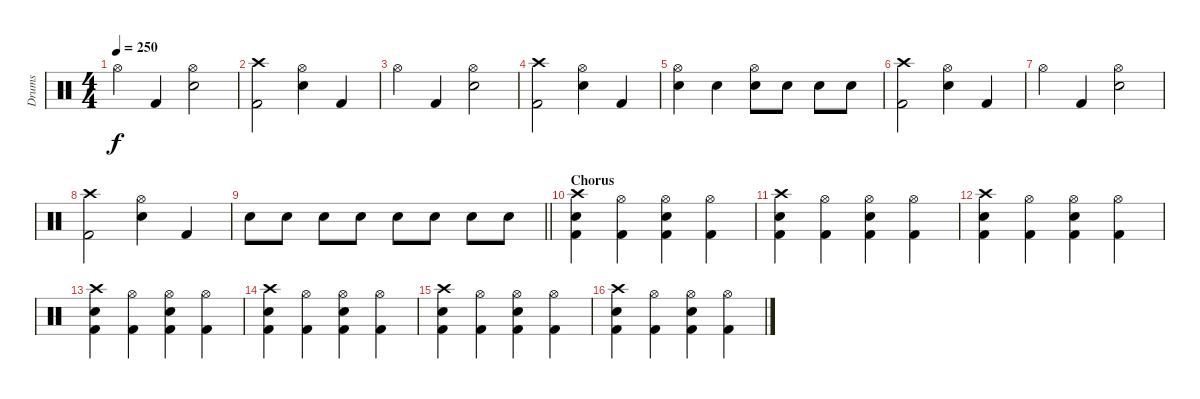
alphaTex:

\track ("Drums" "Drums") {instrument percussion}
\staff {score}
\articulation defaults
\ts (4 4)
\tempo 250
\clef neutral
\ks c "Hi-Hat (open)".4{dy f} "Kick (hit) 2".4
("Hi-Hat (open)" "Electric Snare (hit)").2 |
("Crash high (hit)" "Kick (hit) 2").2 ("Hi-Hat (open)" "Electric Snare (hit)").4 "Kick (hit) 2".4 |
"Hi-Hat (open)".4 "Kick (hit) 2".4 ("Hi-Hat (open)" "Electric Snare (hit)").2 |
("Crash high (hit)" "Kick (hit) 2").2 ("Hi-Hat (open)" "Electric Snare (hit)").4 "Kick (hit) 2".4 |
("Hi-Hat (open)" "Electric Snare (hit)").4 "Electric Snare (hit)".4 ("Hi-Hat (open)" "Electric Snare (hit)").8 "Electric Snare (hit)".8 "Electric Snare (hit)".8 "Electric Snare (hit)".8 |
("Crash high (hit)" "Kick (hit) 2").2 ("Hi-Hat (open)" "Electric Snare (hit)").4 "Kick (hit) 2".4 |
"Hi-Hat (open)".4 "Kick (hit) 2".4 ("Hi-Hat (open)" "Electric Snare (hit)").2 |
("Crash high (hit)" "Kick (hit) 2").2 ("Hi-Hat (open)" "Electric Snare (hit)").4 "Kick (hit) 2".4 |
\barLineRight lightlight "Electric Snare (hit)".8 "Electric Snare (hit)".8 "Electric Snare (hit)".8 "Electric Snare (hit)".8 "Electric Snare (hit)".8 "Electric Snare (hit)".8 "Electric Snare (hit)".8 "Electric Snare (hit)".8
|
\section ("" "Chorus")
("Crash high (hit)" "Electric Snare (hit)" "Kick (hit) 2").4 ("Hi-Hat (open)" "Kick (hit) 2").4 ("Hi-Hat (open)" "Electric Snare (hit)" "Kick (hit) 2").4 ("Hi-Hat (open)" "Kick (hit) 2").4 |
("Crash high (hit)" "Electric Snare (hit)" "Kick (hit) 2").4 ("Hi-Hat (open)" "Kick (hit) 2").4 ("Hi-Hat (open)" "Electric Snare (hit)" "Kick (hit) 2").4 ("Hi-Hat (open)" "Kick (hit) 2").4 |
("Crash high (hit)" "Electric Snare (hit)" "Kick (hit) 2").4 ("Hi-Hat (open)" "Kick (hit) 2").4 ("Hi-Hat (open)" "Electric Snare (hit)" "Kick (hit) 2").4 ("Hi-Hat (open)" "Kick (hit) 2").4 |
("Crash high (hit)" "Electric Snare (hit)" "Kick (hit) 2").4 ("Hi-Hat (open)" "Kick (hit) 2").4 ("Hi-Hat (open)" "Electric Snare (hit)" "Kick (hit) 2").4 ("Hi-Hat (open)" "Kick (hit) 2").4 |
("Crash high (hit)" "Electric Snare (hit)" "Kick (hit) 2").4 ("Hi-Hat (open)" "Kick (hit) 2").4 ("Hi-Hat (open)" "Electric Snare (hit)" "Kick (hit) 2").4 ("Hi-Hat (open)" "Kick (hit) 2").4 |
("Crash high (hit)" "Electric Snare (hit)" "Kick (hit) 2").4 ("Hi-Hat (open)" "Kick (hit) 2").4 ("Hi-Hat (open)" "Electric Snare (hit)" "Kick (hit) 2").4 ("Hi-Hat (open)" "Kick (hit) 2").4 |
("Crash high (hit)" "Electric Snare (hit)" "Kick (hit) 2").4 ("Hi-Hat (open)" "Kick (hit) 2").4 ("Hi-Hat (open)" "Electric Snare (hit)" "Kick (hit) 2").4 ("Hi-Hat (open)" "Kick (hit) 2").4
